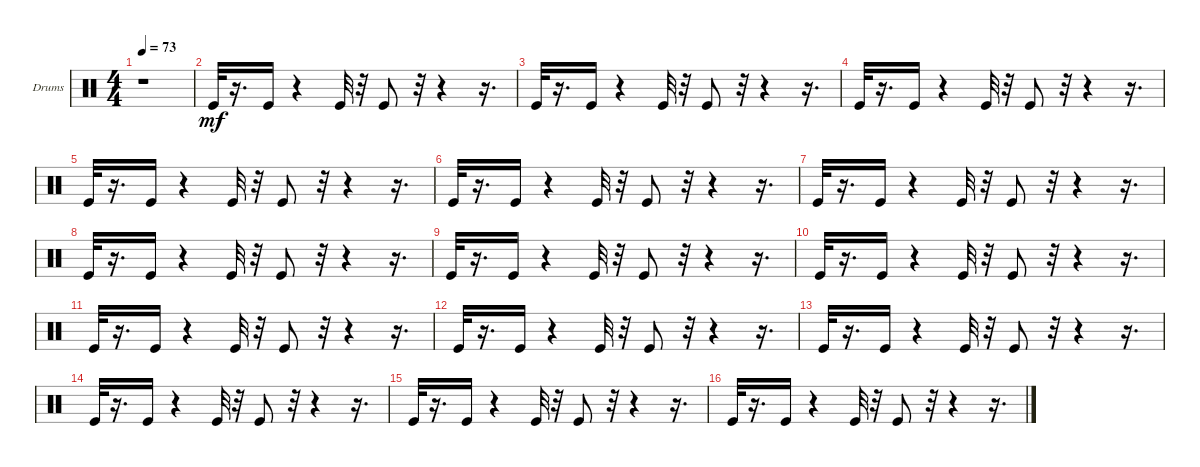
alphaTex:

\bracketExtendMode groupsimilarinstruments
\firstSystemTrackNameOrientation horizontal
\otherSystemsTrackNameOrientation horizontal
\track ("kick" "Drums") {instrument percussion}
\staff {score}
\articulation defaults
\ts (4 4)
\tempo 73
\clef neutral
\ks c
r.1{dy mf} |
"Kick (hit)".32 r.16{d} "Kick (hit)".16 r.4 "Kick (hit)".32 r.32 "Kick (hit)".8 r.32 r.4 r.16{d} |
"Kick (hit)".32 r.16{d} "Kick (hit)".16 r.4 "Kick (hit)".32 r.32 "Kick (hit)".8 r.32 r.4 r.16{d} |
"Kick (hit)".32 r.16{d} "Kick (hit)".16 r.4 "Kick (hit)".32 r.32 "Kick (hit)".8 r.32 r.4 r.16{d} |
"Kick (hit)".32 r.16{d} "Kick (hit)".16 r.4 "Kick (hit)".32 r.32 "Kick (hit)".8 r.32 r.4 r.16{d} |
"Kick (hit)".32 r.16{d} "Kick (hit)".16 r.4 "Kick (hit)".32 r.32 "Kick (hit)".8 r.32 r.4 r.16{d} |
"Kick (hit)".32 r.16{d} "Kick (hit)".16 r.4 "Kick (hit)".32 r.32 "Kick (hit)".8 r.32 r.4 r.16{d} |
"Kick (hit)".32 r.16{d} "Kick (hit)".16 r.4 "Kick (hit)".32 r.32 "Kick (hit)".8 r.32 r.4 r.16{d} |
"Kick (hit)".32 r.16{d} "Kick (hit)".16 r.4 "Kick (hit)".32 r.32 "Kick (hit)".8 r.32 r.4 r.16{d} |
"Kick (hit)".32 r.16{d} "Kick (hit)".16 r.4 "Kick (hit)".32 r.32 "Kick (hit)".8 r.32 r.4 r.16{d} |
"Kick (hit)".32 r.16{d} "Kick (hit)".16 r.4 "Kick (hit)".32 r.32 "Kick (hit)".8 r.32 r.4 r.16{d} |
"Kick (hit)".32 r.16{d} "Kick (hit)".16 r.4 "Kick (hit)".32 r.32 "Kick (hit)".8 r.32 r.4 r.16{d} |
"Kick (hit)".32 r.16{d} "Kick (hit)".16 r.4 "Kick (hit)".32 r.32 "Kick (hit)".8 r.32 r.4 r.16{d} |
"Kick (hit)".32 r.16{d} "Kick (hit)".16 r.4 "Kick (hit)".32 r.32 "Kick (hit)".8 r.32 r.4 r.16{d} |
"Kick (hit)".32 r.16{d} "Kick (hit)".16 r.4 "Kick (hit)".32 r.32 "Kick (hit)".8 r.32 r.4 r.16{d} |
"Kick (hit)".32 r.16{d} "Kick (hit)".16 r.4 "Kick (hit)".32 r.32 "Kick (hit)".8 r.32 r.4 r.16{d}
